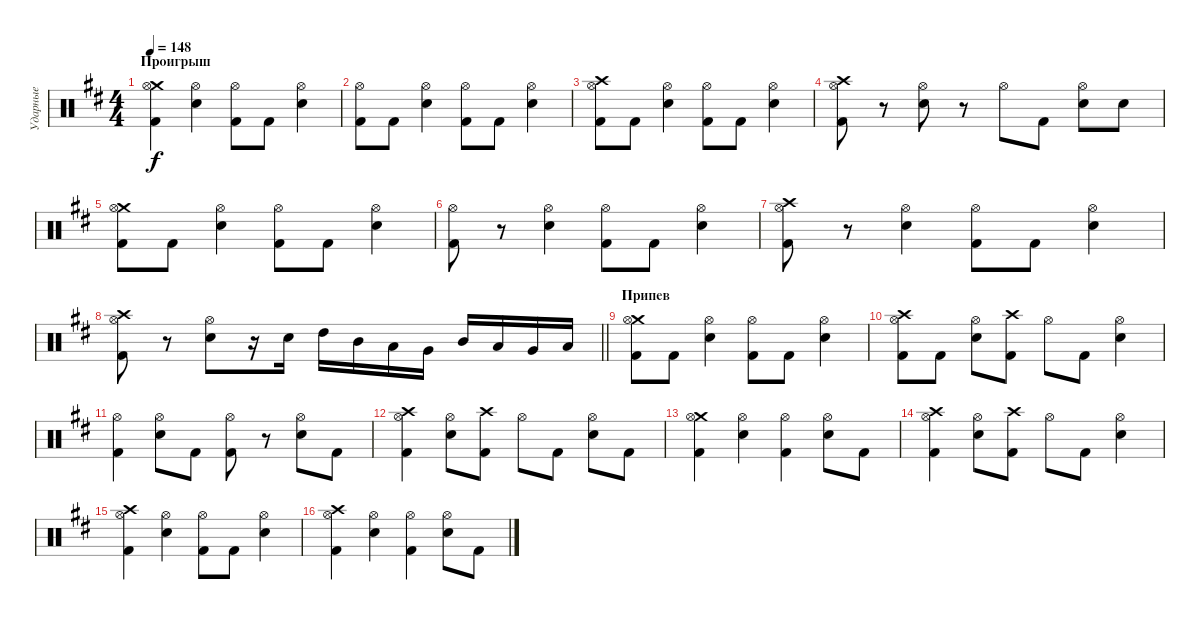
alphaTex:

\track ("Ударные" "Ударные") {instrument percussion}
\staff {score}
\articulation defaults
\ts (4 4)
\section ("" "Проигрыш")
\tempo 148
\clef neutral
\ks bminor
("Crash medium (hit)" "Kick (hit) 2" "Hi-Hat (open)").4{dy f} ("Electric Snare (hit)" "Hi-Hat (open)").4 ("Kick (hit) 2" "Hi-Hat (open)").8 "Kick (hit) 2".8 ("Electric Snare (hit)" "Hi-Hat (open)").4 |
("Kick (hit) 2" "Hi-Hat (open)").8 "Kick (hit) 2".8 ("Electric Snare (hit)" "Hi-Hat (open)").4 ("Kick (hit) 2" "Hi-Hat (open)").8 "Kick (hit) 2".8 ("Electric Snare (hit)" "Hi-Hat (open)").4 |
("Crash high (hit)" "Kick (hit) 2" "Hi-Hat (open)").8 "Kick (hit) 2".8 ("Electric Snare (hit)" "Hi-Hat (open)").4 ("Kick (hit) 2" "Hi-Hat (open)").8 "Kick (hit) 2".8 ("Electric Snare (hit)" "Hi-Hat (open)").4 |
("Crash high (hit)" "Kick (hit) 2" "Hi-Hat (open)").8 r.8 ("Electric Snare (hit)" "Hi-Hat (open)").8 r.8 "Hi-Hat (open)".8 "Kick (hit) 2".8 ("Electric Snare (hit)" "Hi-Hat (open)").8 "Electric Snare (hit)".8 |
("Crash medium (hit)" "Kick (hit) 2" "Hi-Hat (open)").8 "Kick (hit) 2".8 ("Electric Snare (hit)" "Hi-Hat (open)").4 ("Kick (hit) 2" "Hi-Hat (open)").8 "Kick (hit) 2".8 ("Electric Snare (hit)" "Hi-Hat (open)").4 |
("Kick (hit) 2" "Hi-Hat (open)").8 r.8 ("Electric Snare (hit)" "Hi-Hat (open)").4 ("Kick (hit) 2" "Hi-Hat (open)").8 "Kick (hit) 2".8 ("Electric Snare (hit)" "Hi-Hat (open)").4 |
("Crash high (hit)" "Kick (hit) 2" "Hi-Hat (open)").8 r.8 ("Electric Snare (hit)" "Hi-Hat (open)").4 ("Kick (hit) 2" "Hi-Hat (open)").8 "Kick (hit) 2".8 ("Electric Snare (hit)" "Hi-Hat (open)").4 |
\barLineRight lightlight
("Crash high (hit)" "Kick (hit) 2" "Hi-Hat (open)").8 r.8 ("Electric Snare (hit)" "Hi-Hat (open)").8 r.16 "Electric Snare (hit)".16 "High Tom (hit)".16 "Mid Tom (hit)".16 "Low Tom (hit)".16 "Very Low Tom (hit)".16 "Mid Tom (hit)".16 "Low Tom (hit)".16 "Very Low Tom (hit)".16 "Low Floor Tom (hit)".16 |
\section ("" "Припев")
("Crash medium (hit)" "Kick (hit) 2" "Hi-Hat (open)").8 "Kick (hit) 2".8 ("Electric Snare (hit)" "Hi-Hat (open)").4 ("Kick (hit) 2" "Hi-Hat (open)").8 "Kick (hit) 2".8 ("Electric Snare (hit)" "Hi-Hat (open)").4 |
("Crash high (hit)" "Kick (hit) 2" "Hi-Hat (open)").8 "Kick (hit) 2".8 ("Electric Snare (hit)" "Hi-Hat (open)").8 ("Crash high (hit)" "Kick (hit) 2").8 "Hi-Hat (open)".8 "Kick (hit) 2".8 ("Electric Snare (hit)" "Hi-Hat (open)").4 |
("Kick (hit) 2" "Hi-Hat (open)").4 ("Electric Snare (hit)" "Hi-Hat (open)").8 "Kick (hit) 2".8 ("Kick (hit) 2" "Hi-Hat (open)").8 r.8 ("Electric Snare (hit)" "Hi-Hat (open)").8 "Kick (hit) 2".8 |
("Crash high (hit)" "Kick (hit) 2" "Hi-Hat (open)").4 ("Electric Snare (hit)" "Hi-Hat (open)").8 ("Crash high (hit)" "Kick (hit) 2").8 "Hi-Hat (open)".8 "Kick (hit) 2".8 ("Electric Snare (hit)" "Hi-Hat (open)").8 "Kick (hit) 2".8 |
("Crash medium (hit)" "Kick (hit) 2" "Hi-Hat (open)").4 ("Electric Snare (hit)" "Hi-Hat (open)").4 ("Kick (hit) 2" "Hi-Hat (open)").4 ("Electric Snare (hit)" "Hi-Hat (open)").8 "Kick (hit) 2".8 |
("Crash high (hit)" "Kick (hit) 2" "Hi-Hat (open)").4 ("Electric Snare (hit)" "Hi-Hat (open)").8 ("Crash high (hit)" "Kick (hit) 2").8 "Hi-Hat (open)".8 "Kick (hit) 2".8 ("Electric Snare (hit)" "Hi-Hat (open)").4 |
("Crash high (hit)" "Kick (hit) 2" "Hi-Hat (open)").4 ("Electric Snare (hit)" "Hi-Hat (open)").4 ("Kick (hit) 2" "Hi-Hat (open)").8 "Kick (hit) 2".8 ("Electric Snare (hit)" "Hi-Hat (open)").4 |
("Crash high (hit)" "Kick (hit) 2" "Hi-Hat (open)").4 ("Electric Snare (hit)" "Hi-Hat (open)").4 ("Kick (hit) 2" "Hi-Hat (open)").4 ("Electric Snare (hit)" "Hi-Hat (open)").8 "Kick (hit) 2".8
